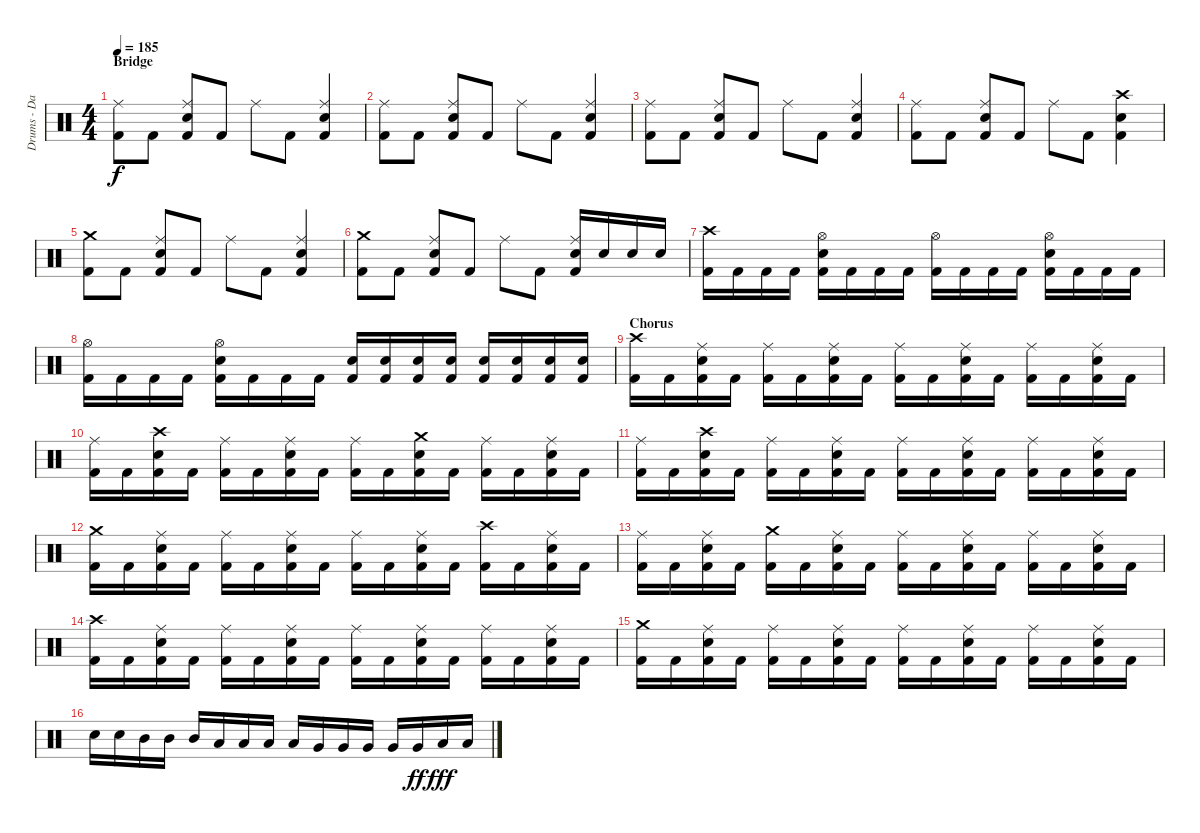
\track ("Drums - Daniel Zimmermann" "Drums - Da") {instrument percussion}
\staff {score}
\articulation defaults
\ts (4 4)
\section ("" "Bridge")
\tempo 185
\clef neutral
\ks c
("Kick (hit) 2" "Ride (middle)").8{dy f} "Kick (hit) 2".8 ("Kick (hit) 2" "Electric Snare (hit)" "Ride (middle)").8 "Kick (hit) 2".8 "Ride (middle)".8 "Kick (hit) 2".8 ("Kick (hit) 2" "Electric Snare (hit)" "Ride (middle)").4 |
("Kick (hit) 2" "Ride (middle)").8 "Kick (hit) 2".8 ("Kick (hit) 2" "Electric Snare (hit)" "Ride (middle)").8 "Kick (hit) 2".8 "Ride (middle)".8 "Kick (hit) 2".8 ("Kick (hit) 2" "Electric Snare (hit)" "Ride (middle)").4 |
("Kick (hit) 2" "Ride (middle)").8 "Kick (hit) 2".8 ("Kick (hit) 2" "Electric Snare (hit)" "Ride (middle)").8 "Kick (hit) 2".8 "Ride (middle)".8 "Kick (hit) 2".8 ("Kick (hit) 2" "Electric Snare (hit)" "Ride (middle)").4 |
("Kick (hit) 2" "Ride (middle)").8 "Kick (hit) 2".8 ("Kick (hit) 2" "Electric Snare (hit)" "Ride (middle)").8 "Kick (hit) 2".8 "Ride (middle)".8 "Kick (hit) 2".8 ("Kick (hit) 2" "Electric Snare (hit)" "Crash high (hit)").4 |
("Kick (hit) 2" "Crash medium (hit)").8 "Kick (hit) 2".8 ("Kick (hit) 2" "Electric Snare (hit)" "Ride (middle)").8 "Kick (hit) 2".8 "Ride (middle)".8 "Kick (hit) 2".8 ("Kick (hit) 2" "Electric Snare (hit)" "Ride (middle)").4 |
("Kick (hit) 2" "Crash medium (hit)").8 "Kick (hit) 2".8 ("Kick (hit) 2" "Electric Snare (hit)" "Ride (middle)").8 "Kick (hit) 2".8 "Ride (middle)".8 "Kick (hit) 2".8 ("Kick (hit) 2" "Electric Snare (hit)" "Ride (middle)").16 "Electric Snare (hit)".16 "Electric Snare (hit)".16 "Electric Snare (hit)".16 |
("Kick (hit) 2" "Crash high (hit)").16 "Kick (hit) 2".16 "Kick (hit) 2".16 "Kick (hit) 2".16 ("Kick (hit) 2" "Electric Snare (hit)" "Hi-Hat (open)").16 "Kick (hit) 2".16 "Kick (hit) 2".16 "Kick (hit) 2".16 ("Kick (hit) 2" "Hi-Hat (open)").16 "Kick (hit) 2".16 "Kick (hit) 2".16 "Kick (hit) 2".16 ("Kick (hit) 2" "Electric Snare (hit)" "Hi-Hat (open)").16 "Kick (hit) 2".16 "Kick (hit) 2".16 "Kick (hit) 2".16 |
("Kick (hit) 2" "Hi-Hat (open)").16 "Kick (hit) 2".16 "Kick (hit) 2".16 "Kick (hit) 2".16 ("Kick (hit) 2" "Electric Snare (hit)" "Hi-Hat (open)").16 "Kick (hit) 2".16 "Kick (hit) 2".16 "Kick (hit) 2".16 ("Kick (hit) 2" "Electric Snare (hit)").16 ("Kick (hit) 2" "Electric Snare (hit)").16 ("Kick (hit) 2" "Electric Snare (hit)").16 ("Kick (hit) 2" "Electric Snare (hit)").16 ("Kick (hit) 2" "Electric Snare (hit)").16 ("Kick (hit) 2" "Electric Snare (hit)").16 ("Kick (hit) 2" "Electric Snare (hit)").16 ("Kick (hit) 2" "Electric Snare (hit)").16 |
\section ("" "Chorus")
("Kick (hit) 2" "Crash high (hit)").16 "Kick (hit) 2".16 ("Kick (hit) 2" "Electric Snare (hit)" "Ride (middle)").16 "Kick (hit) 2".16 ("Kick (hit) 2" "Ride (middle)").16 "Kick (hit) 2".16 ("Kick (hit) 2" "Electric Snare (hit)" "Ride (middle)").16 "Kick (hit) 2".16 ("Kick (hit) 2" "Ride (middle)").16 "Kick (hit) 2".16 ("Kick (hit) 2" "Electric Snare (hit)" "Ride (middle)").16 "Kick (hit) 2".16 ("Kick (hit) 2" "Ride (middle)").16 "Kick (hit) 2".16 ("Kick (hit) 2" "Electric Snare (hit)" "Ride (middle)").16 "Kick (hit) 2".16 |
("Kick (hit) 2" "Ride (middle)").16 "Kick (hit) 2".16 ("Kick (hit) 2" "Electric Snare (hit)" "Crash high (hit)").16 "Kick (hit) 2".16 ("Kick (hit) 2" "Ride (middle)").16 "Kick (hit) 2".16 ("Kick (hit) 2" "Electric Snare (hit)" "Ride (middle)").16 "Kick (hit) 2".16 ("Kick (hit) 2" "Ride (middle)").16 "Kick (hit) 2".16 ("Kick (hit) 2" "Electric Snare (hit)" "Crash medium (hit)").16 "Kick (hit) 2".16 ("Kick (hit) 2" "Ride (middle)").16 "Kick (hit) 2".16 ("Kick (hit) 2" "Electric Snare (hit)" "Ride (middle)").16 "Kick (hit) 2".16 |
("Kick (hit) 2" "Ride (middle)").16 "Kick (hit) 2".16 ("Kick (hit) 2" "Electric Snare (hit)" "Crash high (hit)").16 "Kick (hit) 2".16 ("Kick (hit) 2" "Ride (middle)").16 "Kick (hit) 2".16 ("Kick (hit) 2" "Electric Snare (hit)" "Ride (middle)").16 "Kick (hit) 2".16 ("Kick (hit) 2" "Ride (middle)").16 "Kick (hit) 2".16 ("Kick (hit) 2" "Electric Snare (hit)" "Ride (middle)").16 "Kick (hit) 2".16 ("Kick (hit) 2" "Ride (middle)").16 "Kick (hit) 2".16 ("Kick (hit) 2" "Electric Snare (hit)" "Ride (middle)").16 "Kick (hit) 2".16 |
("Kick (hit) 2" "Crash medium (hit)").16 "Kick (hit) 2".16 ("Kick (hit) 2" "Electric Snare (hit)" "Ride (middle)").16 "Kick (hit) 2".16 ("Kick (hit) 2" "Ride (middle)").16 "Kick (hit) 2".16 ("Kick (hit) 2" "Electric Snare (hit)" "Ride (middle)").16 "Kick (hit) 2".16 ("Kick (hit) 2" "Ride (middle)").16 "Kick (hit) 2".16 ("Kick (hit) 2" "Electric Snare (hit)" "Ride (middle)").16 "Kick (hit) 2".16 ("Kick (hit) 2" "Crash high (hit)").16 "Kick (hit) 2".16 ("Kick (hit) 2" "Electric Snare (hit)" "Ride (middle)").16 "Kick (hit) 2".16 |
("Kick (hit) 2" "Ride (middle)").16 "Kick (hit) 2".16 ("Kick (hit) 2" "Electric Snare (hit)" "Ride (middle)").16 "Kick (hit) 2".16 ("Kick (hit) 2" "Crash medium (hit)").16 "Kick (hit) 2".16 ("Kick (hit) 2" "Electric Snare (hit)" "Ride (middle)").16 "Kick (hit) 2".16 ("Kick (hit) 2" "Ride (middle)").16 "Kick (hit) 2".16 ("Kick (hit) 2" "Electric Snare (hit)" "Ride (middle)").16 "Kick (hit) 2".16 ("Kick (hit) 2" "Ride (middle)").16 "Kick (hit) 2".16 ("Kick (hit) 2" "Electric Snare (hit)" "Ride (middle)").16 "Kick (hit) 2".16 |
("Kick (hit) 2" "Crash high (hit)").16 "Kick (hit) 2".16 ("Kick (hit) 2" "Electric Snare (hit)" "Ride (middle)").16 "Kick (hit) 2".16 ("Kick (hit) 2" "Ride (middle)").16 "Kick (hit) 2".16 ("Kick (hit) 2" "Electric Snare (hit)" "Ride (middle)").16 "Kick (hit) 2".16 ("Kick (hit) 2" "Ride (middle)").16 "Kick (hit) 2".16 ("Kick (hit) 2" "Electric Snare (hit)" "Ride (middle)").16 "Kick (hit) 2".16 ("Kick (hit) 2" "Ride (middle)").16 "Kick (hit) 2".16 ("Kick (hit) 2" "Electric Snare (hit)" "Ride (middle)").16 "Kick (hit) 2".16 |
("Kick (hit) 2" "Crash medium (hit)").16 "Kick (hit) 2".16 ("Kick (hit) 2" "Electric Snare (hit)" "Ride (middle)").16 "Kick (hit) 2".16 ("Kick (hit) 2" "Ride (middle)").16 "Kick (hit) 2".16 ("Kick (hit) 2" "Electric Snare (hit)" "Ride (middle)").16 "Kick (hit) 2".16 ("Kick (hit) 2" "Ride (middle)").16 "Kick (hit) 2".16 ("Kick (hit) 2" "Electric Snare (hit)" "Ride (middle)").16 "Kick (hit) 2".16 ("Kick (hit) 2" "Ride (middle)").16 "Kick (hit) 2".16 ("Kick (hit) 2" "Electric Snare (hit)" "Ride (middle)").16 "Kick (hit) 2".16 |
"Electric Snare (hit)".16 "Electric Snare (hit)".16 "Mid Tom (hit)".16 "Mid Tom (hit)".16 "Mid Tom (hit)".16 "Low Tom (hit)".16 "Low Tom (hit)".16 "Low Tom (hit)".16 "Low Tom (hit)".16 "Very Low Tom (hit)".16 "Very Low Tom (hit)".16 "Very Low Tom (hit)".16 "Very Low Tom (hit)".16 "Very Low Tom (hit)".16{dy ff} "Low Floor Tom (hit)".16{dy fff} "Low Floor Tom (hit)".16
